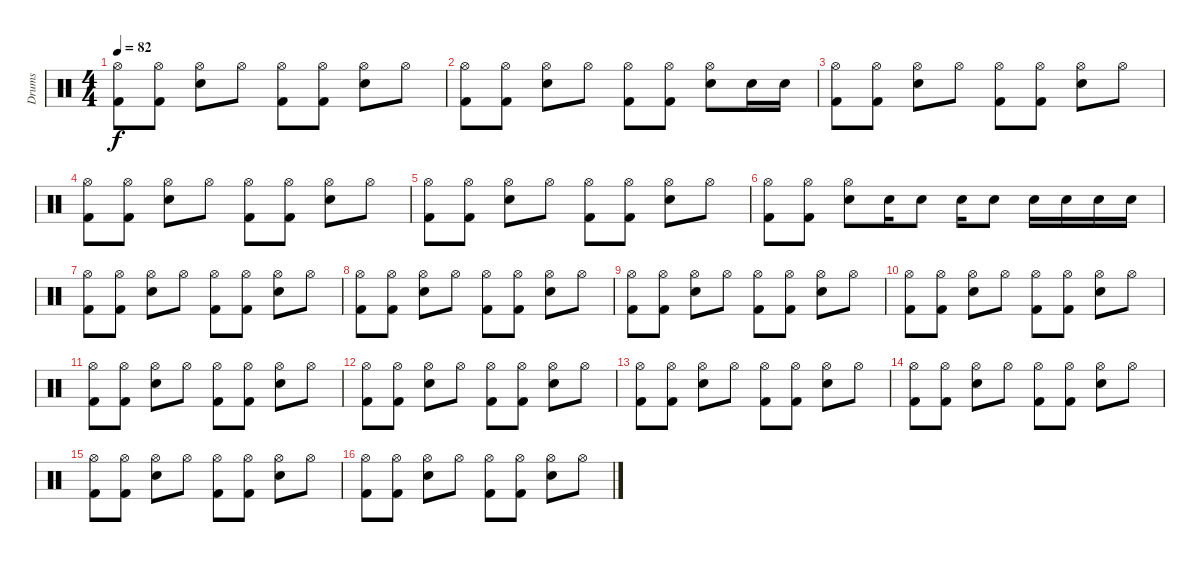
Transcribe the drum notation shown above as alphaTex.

\track ("Drums" "Drums") {instrument percussion}
\staff {score}
\articulation defaults
\ts (4 4)
\tempo 82
\clef neutral
\ks c
("Hi-Hat (open)" "Kick (hit) 2").8{dy f} ("Hi-Hat (open)" "Kick (hit) 2").8 ("Hi-Hat (open)" "Electric Snare (hit)").8 "Hi-Hat (open)".8 ("Hi-Hat (open)" "Kick (hit) 2").8 ("Hi-Hat (open)" "Kick (hit) 2").8 ("Hi-Hat (open)" "Electric Snare (hit)").8 "Hi-Hat (open)".8 |
("Hi-Hat (open)" "Kick (hit) 2").8 ("Hi-Hat (open)" "Kick (hit) 2").8 ("Hi-Hat (open)" "Electric Snare (hit)").8 "Hi-Hat (open)".8 ("Hi-Hat (open)" "Kick (hit) 2").8 ("Hi-Hat (open)" "Kick (hit) 2").8 ("Hi-Hat (open)" "Electric Snare (hit)").8 "Electric Snare (hit)".16 "Electric Snare (hit)".16 |
("Hi-Hat (open)" "Kick (hit) 2").8 ("Hi-Hat (open)" "Kick (hit) 2").8 ("Hi-Hat (open)" "Electric Snare (hit)").8 "Hi-Hat (open)".8 ("Hi-Hat (open)" "Kick (hit) 2").8 ("Hi-Hat (open)" "Kick (hit) 2").8 ("Hi-Hat (open)" "Electric Snare (hit)").8 "Hi-Hat (open)".8 |
("Hi-Hat (open)" "Kick (hit) 2").8 ("Hi-Hat (open)" "Kick (hit) 2").8 ("Hi-Hat (open)" "Electric Snare (hit)").8 "Hi-Hat (open)".8 ("Hi-Hat (open)" "Kick (hit) 2").8 ("Hi-Hat (open)" "Kick (hit) 2").8 ("Hi-Hat (open)" "Electric Snare (hit)").8 "Hi-Hat (open)".8 |
("Hi-Hat (open)" "Kick (hit) 2").8 ("Hi-Hat (open)" "Kick (hit) 2").8 ("Hi-Hat (open)" "Electric Snare (hit)").8 "Hi-Hat (open)".8 ("Hi-Hat (open)" "Kick (hit) 2").8 ("Hi-Hat (open)" "Kick (hit) 2").8 ("Hi-Hat (open)" "Electric Snare (hit)").8 "Hi-Hat (open)".8 |
("Hi-Hat (open)" "Kick (hit) 2").8 ("Hi-Hat (open)" "Kick (hit) 2").8 ("Hi-Hat (open)" "Electric Snare (hit)").8 "Electric Snare (hit)".16 "Electric Snare (hit)".8 "Electric Snare (hit)".16 "Electric Snare (hit)".8 "Electric Snare (hit)".16 "Electric Snare (hit)".16 "Electric Snare (hit)".16 "Electric Snare (hit)".16 |
("Hi-Hat (open)" "Kick (hit) 2").8 ("Hi-Hat (open)" "Kick (hit) 2").8 ("Hi-Hat (open)" "Electric Snare (hit)").8 "Hi-Hat (open)".8 ("Hi-Hat (open)" "Kick (hit) 2").8 ("Hi-Hat (open)" "Kick (hit) 2").8 ("Hi-Hat (open)" "Electric Snare (hit)").8 "Hi-Hat (open)".8 |
("Hi-Hat (open)" "Kick (hit) 2").8 ("Hi-Hat (open)" "Kick (hit) 2").8 ("Hi-Hat (open)" "Electric Snare (hit)").8 "Hi-Hat (open)".8 ("Hi-Hat (open)" "Kick (hit) 2").8 ("Hi-Hat (open)" "Kick (hit) 2").8 ("Hi-Hat (open)" "Electric Snare (hit)").8 "Hi-Hat (open)".8 |
("Hi-Hat (open)" "Kick (hit) 2").8 ("Hi-Hat (open)" "Kick (hit) 2").8 ("Hi-Hat (open)" "Electric Snare (hit)").8 "Hi-Hat (open)".8 ("Hi-Hat (open)" "Kick (hit) 2").8 ("Hi-Hat (open)" "Kick (hit) 2").8 ("Hi-Hat (open)" "Electric Snare (hit)").8 "Hi-Hat (open)".8 |
("Hi-Hat (open)" "Kick (hit) 2").8 ("Hi-Hat (open)" "Kick (hit) 2").8 ("Hi-Hat (open)" "Electric Snare (hit)").8 "Hi-Hat (open)".8 ("Hi-Hat (open)" "Kick (hit) 2").8 ("Hi-Hat (open)" "Kick (hit) 2").8 ("Hi-Hat (open)" "Electric Snare (hit)").8 "Hi-Hat (open)".8 |
("Hi-Hat (open)" "Kick (hit) 2").8 ("Hi-Hat (open)" "Kick (hit) 2").8 ("Hi-Hat (open)" "Electric Snare (hit)").8 "Hi-Hat (open)".8 ("Hi-Hat (open)" "Kick (hit) 2").8 ("Hi-Hat (open)" "Kick (hit) 2").8 ("Hi-Hat (open)" "Electric Snare (hit)").8 "Hi-Hat (open)".8 |
("Hi-Hat (open)" "Kick (hit) 2").8 ("Hi-Hat (open)" "Kick (hit) 2").8 ("Hi-Hat (open)" "Electric Snare (hit)").8 "Hi-Hat (open)".8 ("Hi-Hat (open)" "Kick (hit) 2").8 ("Hi-Hat (open)" "Kick (hit) 2").8 ("Hi-Hat (open)" "Electric Snare (hit)").8 "Hi-Hat (open)".8 |
("Hi-Hat (open)" "Kick (hit) 2").8 ("Hi-Hat (open)" "Kick (hit) 2").8 ("Hi-Hat (open)" "Electric Snare (hit)").8 "Hi-Hat (open)".8 ("Hi-Hat (open)" "Kick (hit) 2").8 ("Hi-Hat (open)" "Kick (hit) 2").8 ("Hi-Hat (open)" "Electric Snare (hit)").8 "Hi-Hat (open)".8 |
("Hi-Hat (open)" "Kick (hit) 2").8 ("Hi-Hat (open)" "Kick (hit) 2").8 ("Hi-Hat (open)" "Electric Snare (hit)").8 "Hi-Hat (open)".8 ("Hi-Hat (open)" "Kick (hit) 2").8 ("Hi-Hat (open)" "Kick (hit) 2").8 ("Hi-Hat (open)" "Electric Snare (hit)").8 "Hi-Hat (open)".8 |
("Hi-Hat (open)" "Kick (hit) 2").8 ("Hi-Hat (open)" "Kick (hit) 2").8 ("Hi-Hat (open)" "Electric Snare (hit)").8 "Hi-Hat (open)".8 ("Hi-Hat (open)" "Kick (hit) 2").8 ("Hi-Hat (open)" "Kick (hit) 2").8 ("Hi-Hat (open)" "Electric Snare (hit)").8 "Hi-Hat (open)".8 |
("Hi-Hat (open)" "Kick (hit) 2").8 ("Hi-Hat (open)" "Kick (hit) 2").8 ("Hi-Hat (open)" "Electric Snare (hit)").8 "Hi-Hat (open)".8 ("Hi-Hat (open)" "Kick (hit) 2").8 ("Hi-Hat (open)" "Kick (hit) 2").8 ("Hi-Hat (open)" "Electric Snare (hit)").8 "Hi-Hat (open)".8
